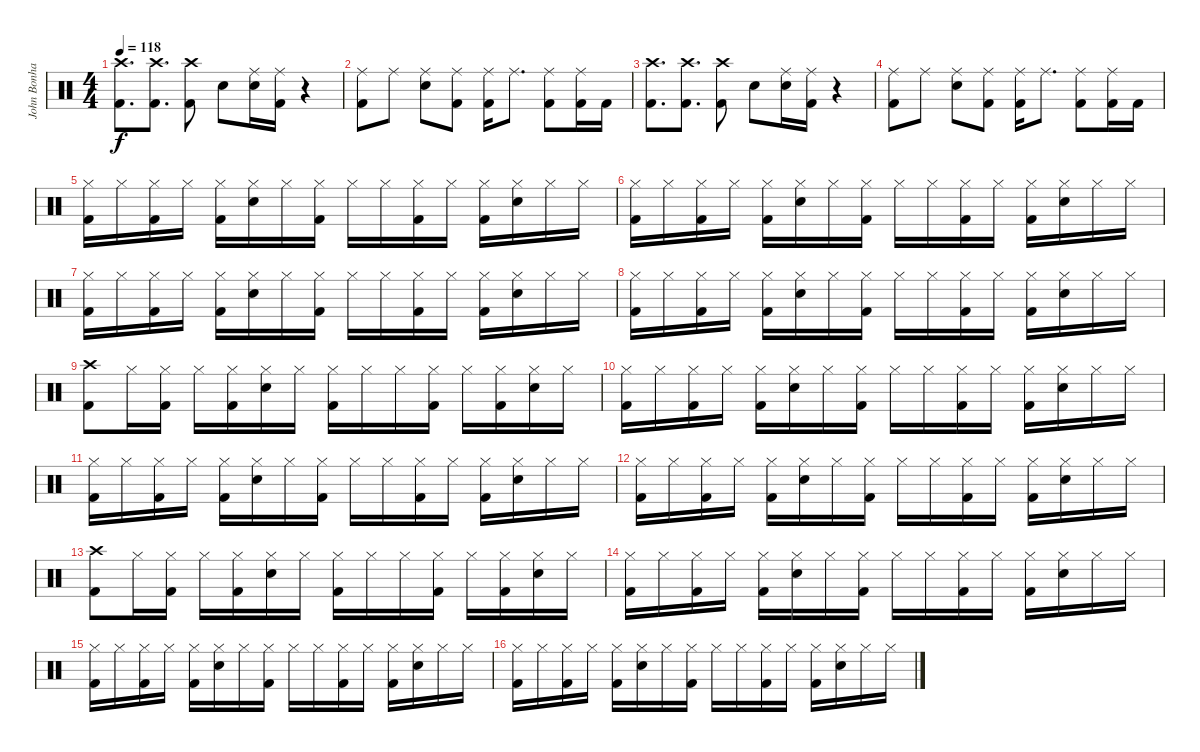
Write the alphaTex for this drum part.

\track ("John Bonham (Bateria)" "John Bonha") {instrument percussion}
\staff {score}
\articulation defaults
\ts (4 4)
\tempo 118
\clef neutral
\ks c
("Crash high (hit)" "Kick (hit) 2").8{d dy f} ("Kick (hit) 2" "Crash high (hit)").8{d} ("Kick (hit) 2" "Crash high (hit)").8 "Snare (hit) 2".8 ("Snare (hit) 2" "Ride (middle)").16 ("Kick (hit) 2" "Ride (middle)").16 r.4 |
("Ride (middle)" "Kick (hit) 2").8 "Ride (middle)".8 ("Snare (hit) 2" "Ride (middle)").8 ("Kick (hit) 2" "Ride (middle)").8 ("Kick (hit) 2" "Ride (middle)").16 "Ride (middle)".8{d} ("Kick (hit) 2" "Ride (middle)").8 ("Kick (hit) 2" "Ride (middle)").16 "Kick (hit) 2".16 |
("Crash high (hit)" "Kick (hit) 2").8{d} ("Kick (hit) 2" "Crash high (hit)").8{d} ("Kick (hit) 2" "Crash high (hit)").8 "Snare (hit) 2".8 ("Snare (hit) 2" "Ride (middle)").16 ("Kick (hit) 2" "Ride (middle)").16 r.4 |
("Ride (middle)" "Kick (hit) 2").8 "Ride (middle)".8 ("Snare (hit) 2" "Ride (middle)").8 ("Kick (hit) 2" "Ride (middle)").8 ("Kick (hit) 2" "Ride (middle)").16 "Ride (middle)".8{d} ("Kick (hit) 2" "Ride (middle)").8 ("Kick (hit) 2" "Ride (middle)").16 "Kick (hit) 2".16 |
("Kick (hit) 2" "Hi-Hat (closed)").16 "Hi-Hat (closed)".16 ("Kick (hit) 2" "Hi-Hat (closed)").16 "Hi-Hat (closed)".16 ("Kick (hit) 2" "Hi-Hat (closed)").16 ("Snare (hit) 2" "Hi-Hat (closed)").16 "Hi-Hat (closed)".16 ("Kick (hit) 2" "Hi-Hat (closed)").16 "Hi-Hat (closed)".16 "Hi-Hat (closed)".16 ("Kick (hit) 2" "Hi-Hat (closed)").16 "Hi-Hat (closed)".16 ("Kick (hit) 2" "Hi-Hat (closed)").16 ("Snare (hit) 2" "Hi-Hat (closed)").16 "Hi-Hat (closed)".16 "Hi-Hat (closed)".16 |
("Kick (hit) 2" "Hi-Hat (closed)").16 "Hi-Hat (closed)".16 ("Kick (hit) 2" "Hi-Hat (closed)").16 "Hi-Hat (closed)".16 ("Kick (hit) 2" "Hi-Hat (closed)").16 ("Snare (hit) 2" "Hi-Hat (closed)").16 "Hi-Hat (closed)".16 ("Kick (hit) 2" "Hi-Hat (closed)").16 "Hi-Hat (closed)".16 "Hi-Hat (closed)".16 ("Kick (hit) 2" "Hi-Hat (closed)").16 "Hi-Hat (closed)".16 ("Kick (hit) 2" "Hi-Hat (closed)").16 ("Snare (hit) 2" "Hi-Hat (closed)").16 "Hi-Hat (closed)".16 "Hi-Hat (closed)".16 |
("Kick (hit) 2" "Hi-Hat (closed)").16 "Hi-Hat (closed)".16 ("Kick (hit) 2" "Hi-Hat (closed)").16 "Hi-Hat (closed)".16 ("Kick (hit) 2" "Hi-Hat (closed)").16 ("Snare (hit) 2" "Hi-Hat (closed)").16 "Hi-Hat (closed)".16 ("Kick (hit) 2" "Hi-Hat (closed)").16 "Hi-Hat (closed)".16 "Hi-Hat (closed)".16 ("Kick (hit) 2" "Hi-Hat (closed)").16 "Hi-Hat (closed)".16 ("Kick (hit) 2" "Hi-Hat (closed)").16 ("Snare (hit) 2" "Hi-Hat (closed)").16 "Hi-Hat (closed)".16 "Hi-Hat (closed)".16 |
("Kick (hit) 2" "Hi-Hat (closed)").16 "Hi-Hat (closed)".16 ("Kick (hit) 2" "Hi-Hat (closed)").16 "Hi-Hat (closed)".16 ("Kick (hit) 2" "Hi-Hat (closed)").16 ("Snare (hit) 2" "Hi-Hat (closed)").16 "Hi-Hat (closed)".16 ("Kick (hit) 2" "Hi-Hat (closed)").16 "Hi-Hat (closed)".16 "Hi-Hat (closed)".16 ("Kick (hit) 2" "Hi-Hat (closed)").16 "Hi-Hat (closed)".16 ("Kick (hit) 2" "Hi-Hat (closed)").16 ("Snare (hit) 2" "Hi-Hat (closed)").16 "Hi-Hat (closed)".16 "Hi-Hat (closed)".16 |
("Crash high (hit)" "Kick (hit) 2").8 "Hi-Hat (closed)".16 ("Kick (hit) 2" "Hi-Hat (closed)").16 "Hi-Hat (closed)".16 ("Kick (hit) 2" "Hi-Hat (closed)").16 ("Snare (hit) 2" "Hi-Hat (closed)").16 "Hi-Hat (closed)".16 ("Kick (hit) 2" "Hi-Hat (closed)").16 "Hi-Hat (closed)".16 "Hi-Hat (closed)".16 ("Kick (hit) 2" "Hi-Hat (closed)").16 "Hi-Hat (closed)".16 ("Kick (hit) 2" "Hi-Hat (closed)").16 ("Snare (hit) 2" "Hi-Hat (closed)").16 "Hi-Hat (closed)".16 |
("Kick (hit) 2" "Hi-Hat (closed)").16 "Hi-Hat (closed)".16 ("Kick (hit) 2" "Hi-Hat (closed)").16 "Hi-Hat (closed)".16 ("Kick (hit) 2" "Hi-Hat (closed)").16 ("Snare (hit) 2" "Hi-Hat (closed)").16 "Hi-Hat (closed)".16 ("Kick (hit) 2" "Hi-Hat (closed)").16 "Hi-Hat (closed)".16 "Hi-Hat (closed)".16 ("Kick (hit) 2" "Hi-Hat (closed)").16 "Hi-Hat (closed)".16 ("Kick (hit) 2" "Hi-Hat (closed)").16 ("Snare (hit) 2" "Hi-Hat (closed)").16 "Hi-Hat (closed)".16 "Hi-Hat (closed)".16 |
("Kick (hit) 2" "Hi-Hat (closed)").16 "Hi-Hat (closed)".16 ("Kick (hit) 2" "Hi-Hat (closed)").16 "Hi-Hat (closed)".16 ("Kick (hit) 2" "Hi-Hat (closed)").16 ("Snare (hit) 2" "Hi-Hat (closed)").16 "Hi-Hat (closed)".16 ("Kick (hit) 2" "Hi-Hat (closed)").16 "Hi-Hat (closed)".16 "Hi-Hat (closed)".16 ("Kick (hit) 2" "Hi-Hat (closed)").16 "Hi-Hat (closed)".16 ("Kick (hit) 2" "Hi-Hat (closed)").16 ("Snare (hit) 2" "Hi-Hat (closed)").16 "Hi-Hat (closed)".16 "Hi-Hat (closed)".16 |
("Kick (hit) 2" "Hi-Hat (closed)").16 "Hi-Hat (closed)".16 ("Kick (hit) 2" "Hi-Hat (closed)").16 "Hi-Hat (closed)".16 ("Kick (hit) 2" "Hi-Hat (closed)").16 ("Snare (hit) 2" "Hi-Hat (closed)").16 "Hi-Hat (closed)".16 ("Kick (hit) 2" "Hi-Hat (closed)").16 "Hi-Hat (closed)".16 "Hi-Hat (closed)".16 ("Kick (hit) 2" "Hi-Hat (closed)").16 "Hi-Hat (closed)".16 ("Kick (hit) 2" "Hi-Hat (closed)").16 ("Snare (hit) 2" "Hi-Hat (closed)").16 "Hi-Hat (closed)".16 "Hi-Hat (closed)".16 |
("Crash high (hit)" "Kick (hit) 2").8 "Hi-Hat (closed)".16 ("Kick (hit) 2" "Hi-Hat (closed)").16 "Hi-Hat (closed)".16 ("Kick (hit) 2" "Hi-Hat (closed)").16 ("Snare (hit) 2" "Hi-Hat (closed)").16 "Hi-Hat (closed)".16 ("Kick (hit) 2" "Hi-Hat (closed)").16 "Hi-Hat (closed)".16 "Hi-Hat (closed)".16 ("Kick (hit) 2" "Hi-Hat (closed)").16 "Hi-Hat (closed)".16 ("Kick (hit) 2" "Hi-Hat (closed)").16 ("Snare (hit) 2" "Hi-Hat (closed)").16 "Hi-Hat (closed)".16 |
("Kick (hit) 2" "Hi-Hat (closed)").16 "Hi-Hat (closed)".16 ("Kick (hit) 2" "Hi-Hat (closed)").16 "Hi-Hat (closed)".16 ("Kick (hit) 2" "Hi-Hat (closed)").16 ("Snare (hit) 2" "Hi-Hat (closed)").16 "Hi-Hat (closed)".16 ("Kick (hit) 2" "Hi-Hat (closed)").16 "Hi-Hat (closed)".16 "Hi-Hat (closed)".16 ("Kick (hit) 2" "Hi-Hat (closed)").16 "Hi-Hat (closed)".16 ("Kick (hit) 2" "Hi-Hat (closed)").16 ("Snare (hit) 2" "Hi-Hat (closed)").16 "Hi-Hat (closed)".16 "Hi-Hat (closed)".16 |
("Kick (hit) 2" "Hi-Hat (closed)").16 "Hi-Hat (closed)".16 ("Kick (hit) 2" "Hi-Hat (closed)").16 "Hi-Hat (closed)".16 ("Kick (hit) 2" "Hi-Hat (closed)").16 ("Snare (hit) 2" "Hi-Hat (closed)").16 "Hi-Hat (closed)".16 ("Kick (hit) 2" "Hi-Hat (closed)").16 "Hi-Hat (closed)".16 "Hi-Hat (closed)".16 ("Kick (hit) 2" "Hi-Hat (closed)").16 "Hi-Hat (closed)".16 ("Kick (hit) 2" "Hi-Hat (closed)").16 ("Snare (hit) 2" "Hi-Hat (closed)").16 "Hi-Hat (closed)".16 "Hi-Hat (closed)".16 |
("Kick (hit) 2" "Hi-Hat (closed)").16 "Hi-Hat (closed)".16 ("Kick (hit) 2" "Hi-Hat (closed)").16 "Hi-Hat (closed)".16 ("Kick (hit) 2" "Hi-Hat (closed)").16 ("Snare (hit) 2" "Hi-Hat (closed)").16 "Hi-Hat (closed)".16 ("Kick (hit) 2" "Hi-Hat (closed)").16 "Hi-Hat (closed)".16 "Hi-Hat (closed)".16 ("Kick (hit) 2" "Hi-Hat (closed)").16 "Hi-Hat (closed)".16 ("Kick (hit) 2" "Hi-Hat (closed)").16 ("Snare (hit) 2" "Hi-Hat (closed)").16 "Hi-Hat (closed)".16 "Hi-Hat (closed)".16
